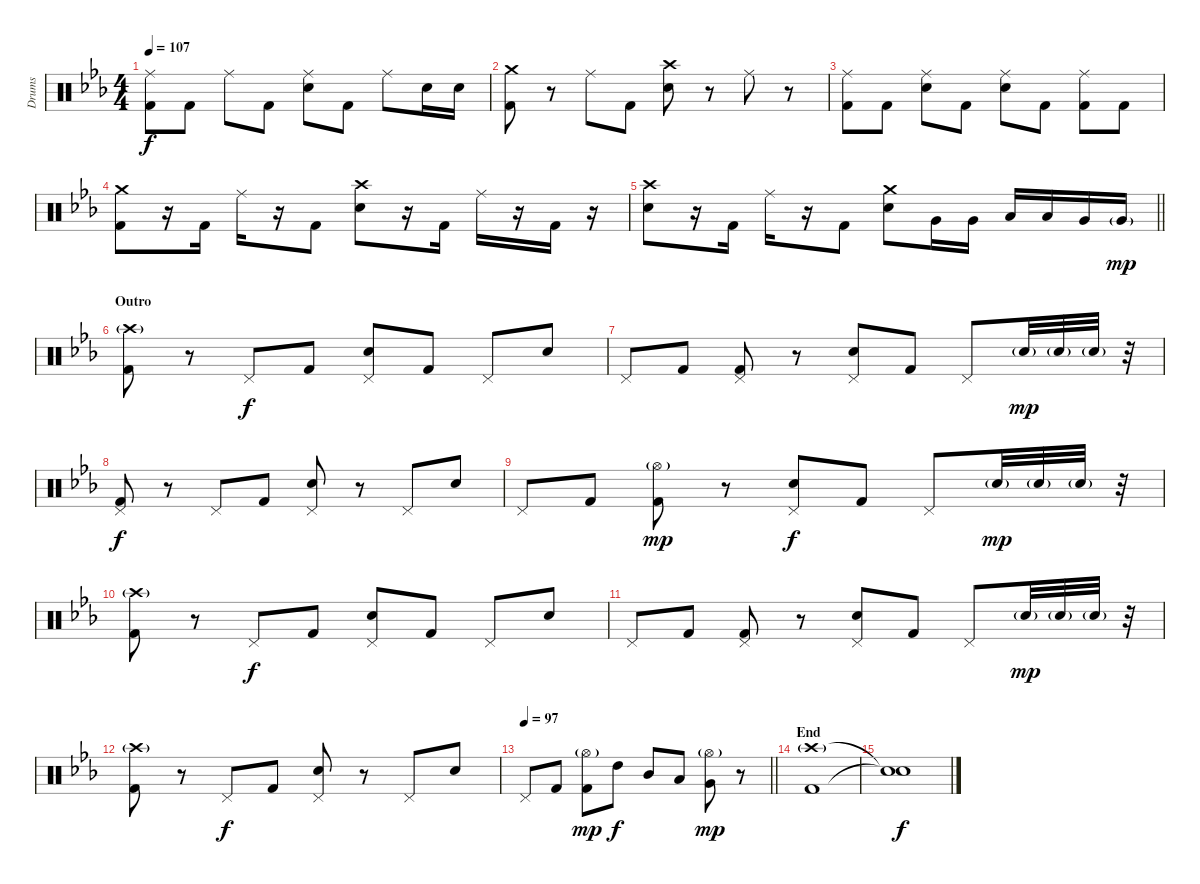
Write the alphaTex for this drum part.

\track ("Drums" "Drums") {instrument percussion}
\staff {score}
\articulation defaults
\ts (4 4)
\tempo 107
\clef neutral
\ks cminor
("Ride (middle)" "Kick (hit) 2").8{dy f} "Kick (hit) 2".8 "Ride (middle)".8 "Kick (hit) 2".8 ("Ride (middle)" "Electric Snare (hit)").8 "Kick (hit) 2".8 "Ride (middle)".8 "Electric Snare (hit)".16 "Electric Snare (hit)".16 |
("Crash medium (hit)" "Kick (hit) 2").8 r.8 "Ride (middle)".8 "Kick (hit) 2".8 ("Crash high (hit)" "Electric Snare (hit)").8 r.8 "Ride (middle)".8 r.8 |
("Ride (middle)" "Kick (hit) 2").8 "Kick (hit) 2".8 ("Ride (middle)" "Electric Snare (hit)").8 "Kick (hit) 2".8 ("Ride (middle)" "Electric Snare (hit)").8 "Kick (hit) 2".8 ("Ride (middle)" "Kick (hit) 2").8 "Kick (hit) 2".8 |
("Crash medium (hit)" "Kick (hit) 2").8 r.16 "Kick (hit) 2".16 "Ride (middle)".16 r.16 "Kick (hit) 2".8 ("Crash high (hit)" "Electric Snare (hit)").8 r.16 "Kick (hit) 2".16 "Ride (middle)".16 r.16 "Kick (hit) 2".16 r.16 |
\barLineRight lightlight
("Crash high (hit)" "Electric Snare (hit)").8 r.16 "Kick (hit) 2".16 "Ride (middle)".16 r.16 "Kick (hit) 2".8 ("Crash medium (hit)" "Electric Snare (hit)").8 "Very Low Tom (hit)".16 "Very Low Tom (hit)".16 "Low Tom (hit)".16 "Low Tom (hit)".16 "Very Low Tom (hit)".16 "Very Low Tom (hit)"{g}.16{dy mp} |
\section ("" "Outro")
("Crash high (hit)"{g} "Kick (hit) 2").8 r.8 "Pedal Hi-Hat (hit)".8{dy f} "Kick (hit) 2".8 ("Pedal Hi-Hat (hit)" "Electric Snare (hit)").8 "Kick (hit) 2".8 "Pedal Hi-Hat (hit)".8 "Electric Snare (hit)".8 |
"Pedal Hi-Hat (hit)".8 "Kick (hit) 2".8 ("Pedal Hi-Hat (hit)" "Kick (hit) 2").8 r.8 ("Pedal Hi-Hat (hit)" "Electric Snare (hit)").8 "Kick (hit) 2".8 "Pedal Hi-Hat (hit)".8 "Electric Snare (hit)"{g}.32{dy mp} "Electric Snare (hit)"{g}.32 "Electric Snare (hit)"{g}.32 r.32 |
("Pedal Hi-Hat (hit)" "Kick (hit) 2").8{dy f} r.8 "Pedal Hi-Hat (hit)".8 "Kick (hit) 2".8 ("Pedal Hi-Hat (hit)" "Electric Snare (hit)").8 r.8 "Pedal Hi-Hat (hit)".8 "Electric Snare (hit)".8 |
"Pedal Hi-Hat (hit)".8 "Kick (hit) 2".8 ("Hi-Hat (open)"{g} "Kick (hit) 2").8{dy mp} r.8 ("Pedal Hi-Hat (hit)" "Electric Snare (hit)").8{dy f} "Kick (hit) 2".8 "Pedal Hi-Hat (hit)".8 "Electric Snare (hit)"{g}.32{dy mp} "Electric Snare (hit)"{g}.32 "Electric Snare (hit)"{g}.32 r.32 |
("Crash high (hit)"{g} "Kick (hit) 2").8 r.8 "Pedal Hi-Hat (hit)".8{dy f} "Kick (hit) 2".8 ("Pedal Hi-Hat (hit)" "Electric Snare (hit)").8 "Kick (hit) 2".8 "Pedal Hi-Hat (hit)".8 "Electric Snare (hit)".8 |
"Pedal Hi-Hat (hit)".8 "Kick (hit) 2".8 ("Pedal Hi-Hat (hit)" "Kick (hit) 2").8 r.8 ("Pedal Hi-Hat (hit)" "Electric Snare (hit)").8 "Kick (hit) 2".8 "Pedal Hi-Hat (hit)".8 "Electric Snare (hit)"{g}.32{dy mp} "Electric Snare (hit)"{g}.32 "Electric Snare (hit)"{g}.32 r.32 |
("Crash high (hit)"{g} "Kick (hit) 2").8 r.8 "Pedal Hi-Hat (hit)".8{dy f} "Kick (hit) 2".8 ("Pedal Hi-Hat (hit)" "Electric Snare (hit)").8 r.8 "Pedal Hi-Hat (hit)".8 "Electric Snare (hit)".8 |
\tempo 97
\barLineRight lightlight "Pedal Hi-Hat (hit)".8 "Kick (hit) 2".8
("Hi-Hat (open)"{g} "Kick (hit) 2").8{dy mp} "High Tom (hit)".8{dy f} "Mid Tom (hit)".8 "Low Tom (hit)".8 ("Hi-Hat (open)"{g} "Very Low Tom (hit)").8{dy mp} r.8 |
\section ("" "End")
("Crash high (hit)"{g} "Kick (hit) 2").1 |
("Snare (hit)"{t} "Snare (hit)"{t}).1{dy f}
